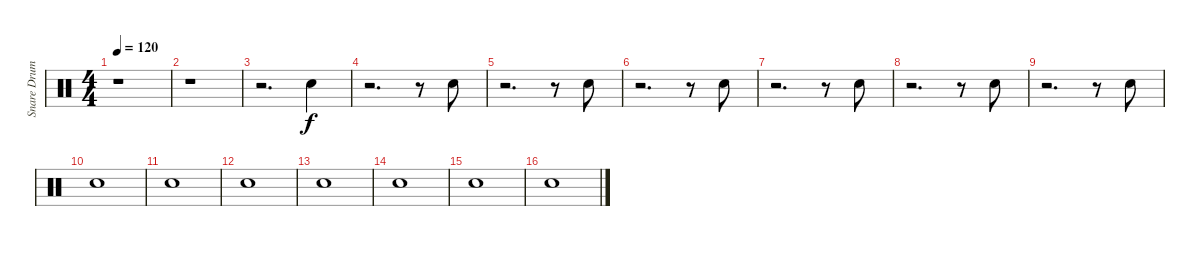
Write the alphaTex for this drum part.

\track ("Snare Drum" "Snare Drum") {instrument percussion}
\staff {score}
\articulation defaults
\ts (4 4)
\tempo 120
\clef neutral
\ks c
r.1{dy f} |
r.1 |
r.2{d} "Snare (hit) 2".4 |
r.2{d} r.8 "Snare (hit) 2".8 |
r.2{d} r.8 "Snare (hit) 2".8 |
r.2{d} r.8 "Snare (hit) 2".8 |
r.2{d} r.8 "Snare (hit) 2".8 |
r.2{d} r.8 "Snare (hit) 2".8 |
r.2{d} r.8 "Snare (hit) 2".8 |
"Snare (hit) 2".1 |
"Snare (hit) 2".1 |
"Snare (hit) 2".1 |
"Snare (hit) 2".1 |
"Snare (hit) 2".1 |
"Snare (hit) 2".1 |
"Snare (hit) 2".1
